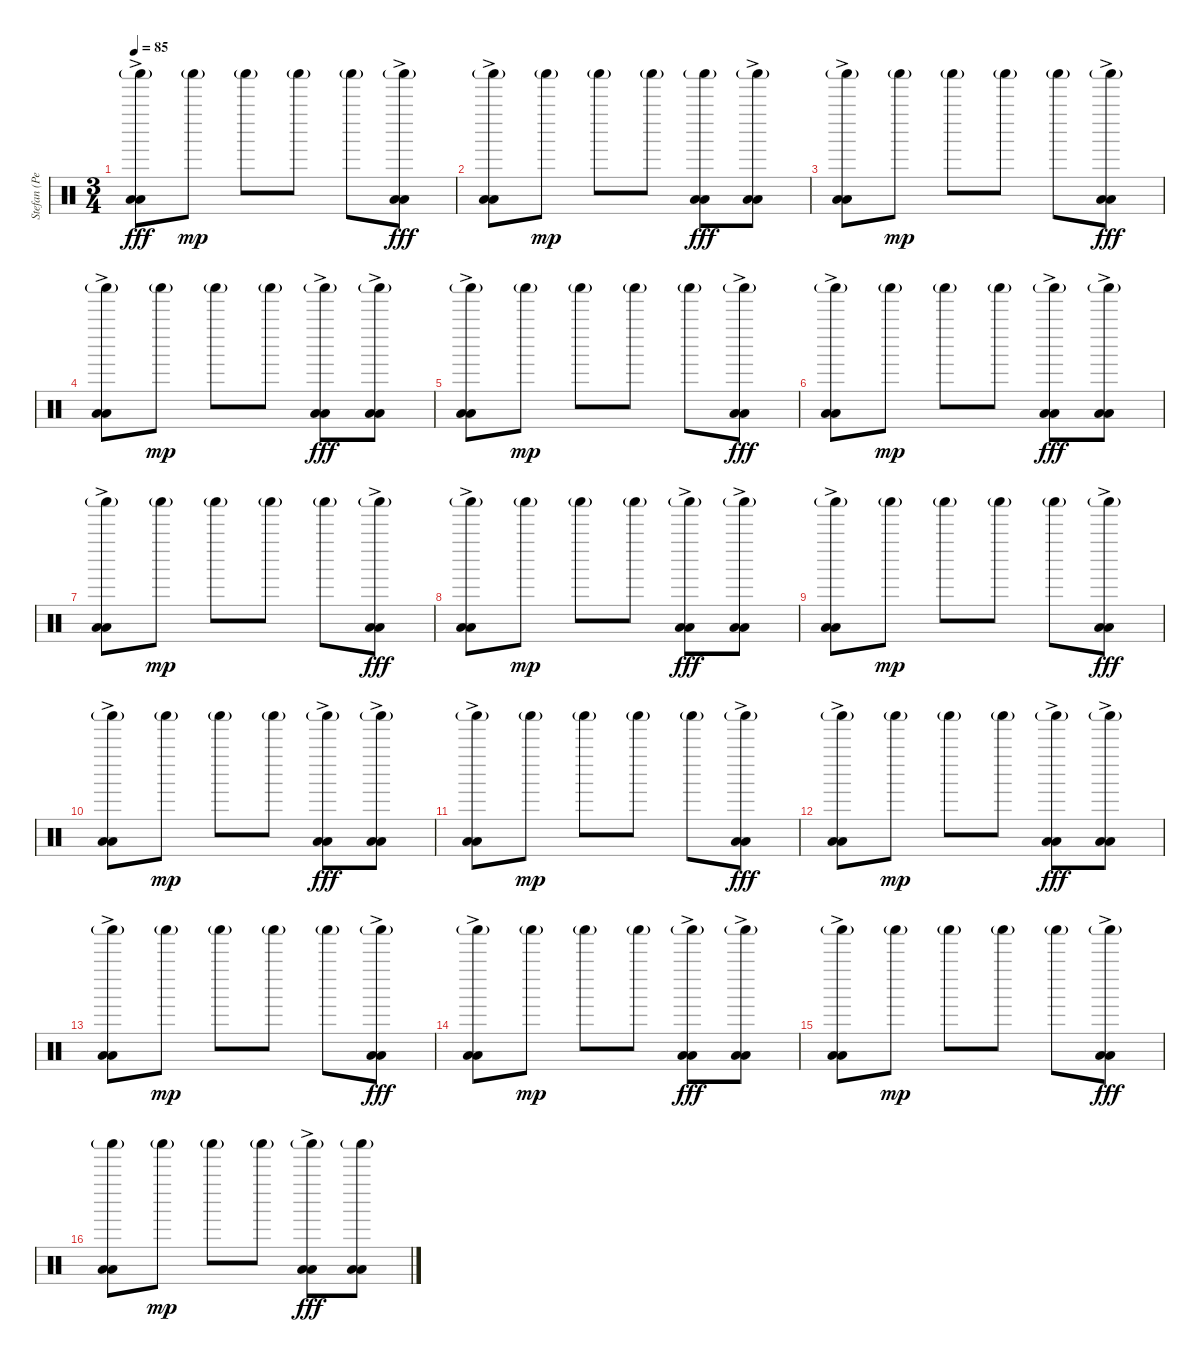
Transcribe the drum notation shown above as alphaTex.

\track ("Stefan (Percussion)" "Stefan (Pe") {instrument percussion}
\staff {score}
\articulation defaults
\ts (3 4)
\tempo 85
\clef neutral
\ks c
("Shaker (hit)"{g} "Low Floor Tom (hit)"{ac} "Low Floor Tom (hit)"{ac}).8{dy fff} "Shaker (hit)"{g}.8{dy mp} "Shaker (hit)"{g}.8 "Shaker (hit)"{g}.8 "Shaker (hit)"{g}.8 ("Shaker (hit)"{g} "Low Floor Tom (hit)"{ac} "Low Floor Tom (hit)"{ac}).8{dy fff} |
("Shaker (hit)"{g} "Low Floor Tom (hit)"{ac} "Low Floor Tom (hit)"{ac}).8 "Shaker (hit)"{g}.8{dy mp} "Shaker (hit)"{g}.8 "Shaker (hit)"{g}.8 ("Shaker (hit)"{g} "Low Floor Tom (hit)" "Low Floor Tom (hit)").8{dy fff} ("Shaker (hit)"{g} "Low Floor Tom (hit)"{ac} "Low Floor Tom (hit)"{ac}).8 |
("Shaker (hit)"{g} "Low Floor Tom (hit)"{ac} "Low Floor Tom (hit)"{ac}).8 "Shaker (hit)"{g}.8{dy mp} "Shaker (hit)"{g}.8 "Shaker (hit)"{g}.8 "Shaker (hit)"{g}.8 ("Shaker (hit)"{g} "Low Floor Tom (hit)"{ac} "Low Floor Tom (hit)"{ac}).8{dy fff} |
("Shaker (hit)"{g} "Low Floor Tom (hit)"{ac} "Low Floor Tom (hit)"{ac}).8 "Shaker (hit)"{g}.8{dy mp} "Shaker (hit)"{g}.8 "Shaker (hit)"{g}.8 ("Shaker (hit)"{g} "Low Floor Tom (hit)"{ac} "Low Floor Tom (hit)"{ac}).8{dy fff} ("Shaker (hit)"{g} "Low Floor Tom (hit)"{ac} "Low Floor Tom (hit)"{ac}).8 |
("Shaker (hit)"{g} "Low Floor Tom (hit)"{ac} "Low Floor Tom (hit)"{ac}).8 "Shaker (hit)"{g}.8{dy mp} "Shaker (hit)"{g}.8 "Shaker (hit)"{g}.8 "Shaker (hit)"{g}.8 ("Shaker (hit)"{g} "Low Floor Tom (hit)"{ac} "Low Floor Tom (hit)"{ac}).8{dy fff} |
("Shaker (hit)"{g} "Low Floor Tom (hit)"{ac} "Low Floor Tom (hit)"{ac}).8 "Shaker (hit)"{g}.8{dy mp} "Shaker (hit)"{g}.8 "Shaker (hit)"{g}.8 ("Shaker (hit)"{g} "Low Floor Tom (hit)"{ac} "Low Floor Tom (hit)"{ac}).8{dy fff} ("Shaker (hit)"{g} "Low Floor Tom (hit)"{ac} "Low Floor Tom (hit)"{ac}).8 |
("Shaker (hit)"{g} "Low Floor Tom (hit)"{ac} "Low Floor Tom (hit)"{ac}).8 "Shaker (hit)"{g}.8{dy mp} "Shaker (hit)"{g}.8 "Shaker (hit)"{g}.8 "Shaker (hit)"{g}.8 ("Shaker (hit)"{g} "Low Floor Tom (hit)"{ac} "Low Floor Tom (hit)"{ac}).8{dy fff} |
("Shaker (hit)"{g} "Low Floor Tom (hit)"{ac} "Low Floor Tom (hit)"{ac}).8 "Shaker (hit)"{g}.8{dy mp} "Shaker (hit)"{g}.8 "Shaker (hit)"{g}.8 ("Shaker (hit)"{g} "Low Floor Tom (hit)"{ac} "Low Floor Tom (hit)"{ac}).8{dy fff} ("Shaker (hit)"{g} "Low Floor Tom (hit)"{ac} "Low Floor Tom (hit)"{ac}).8 |
("Shaker (hit)"{g} "Low Floor Tom (hit)"{ac} "Low Floor Tom (hit)"{ac}).8 "Shaker (hit)"{g}.8{dy mp} "Shaker (hit)"{g}.8 "Shaker (hit)"{g}.8 "Shaker (hit)"{g}.8 ("Shaker (hit)"{g} "Low Floor Tom (hit)"{ac} "Low Floor Tom (hit)"{ac}).8{dy fff} |
("Shaker (hit)"{g} "Low Floor Tom (hit)"{ac} "Low Floor Tom (hit)"{ac}).8 "Shaker (hit)"{g}.8{dy mp} "Shaker (hit)"{g}.8 "Shaker (hit)"{g}.8 ("Shaker (hit)"{g} "Low Floor Tom (hit)"{ac} "Low Floor Tom (hit)"{ac}).8{dy fff} ("Shaker (hit)"{g} "Low Floor Tom (hit)"{ac} "Low Floor Tom (hit)"{ac}).8 |
("Shaker (hit)"{g} "Low Floor Tom (hit)"{ac} "Low Floor Tom (hit)"{ac}).8 "Shaker (hit)"{g}.8{dy mp} "Shaker (hit)"{g}.8 "Shaker (hit)"{g}.8 "Shaker (hit)"{g}.8 ("Shaker (hit)"{g} "Low Floor Tom (hit)"{ac} "Low Floor Tom (hit)"{ac}).8{dy fff} |
("Shaker (hit)"{g} "Low Floor Tom (hit)"{ac} "Low Floor Tom (hit)"{ac}).8 "Shaker (hit)"{g}.8{dy mp} "Shaker (hit)"{g}.8 "Shaker (hit)"{g}.8 ("Shaker (hit)"{g} "Low Floor Tom (hit)"{ac} "Low Floor Tom (hit)"{ac}).8{dy fff} ("Shaker (hit)"{g} "Low Floor Tom (hit)"{ac} "Low Floor Tom (hit)"{ac}).8 |
("Shaker (hit)"{g} "Low Floor Tom (hit)"{ac} "Low Floor Tom (hit)"{ac}).8 "Shaker (hit)"{g}.8{dy mp} "Shaker (hit)"{g}.8 "Shaker (hit)"{g}.8 "Shaker (hit)"{g}.8 ("Shaker (hit)"{g} "Low Floor Tom (hit)"{ac} "Low Floor Tom (hit)"{ac}).8{dy fff} |
("Shaker (hit)"{g} "Low Floor Tom (hit)"{ac} "Low Floor Tom (hit)"{ac}).8 "Shaker (hit)"{g}.8{dy mp} "Shaker (hit)"{g}.8 "Shaker (hit)"{g}.8 ("Shaker (hit)"{g} "Low Floor Tom (hit)"{ac} "Low Floor Tom (hit)"{ac}).8{dy fff} ("Shaker (hit)"{g} "Low Floor Tom (hit)"{ac} "Low Floor Tom (hit)"{ac}).8 |
("Shaker (hit)"{g} "Low Floor Tom (hit)"{ac} "Low Floor Tom (hit)"{ac}).8 "Shaker (hit)"{g}.8{dy mp} "Shaker (hit)"{g}.8 "Shaker (hit)"{g}.8 "Shaker (hit)"{g}.8 ("Shaker (hit)"{g} "Low Floor Tom (hit)"{ac} "Low Floor Tom (hit)"{ac}).8{dy fff} |
("Shaker (hit)"{g} "Low Floor Tom (hit)" "Low Floor Tom (hit)").8 "Shaker (hit)"{g}.8{dy mp} "Shaker (hit)"{g}.8 "Shaker (hit)"{g}.8 ("Shaker (hit)"{g} "Low Floor Tom (hit)"{ac} "Low Floor Tom (hit)"{ac}).8{dy fff} ("Shaker (hit)"{g} "Low Floor Tom (hit)" "Low Floor Tom (hit)").8
